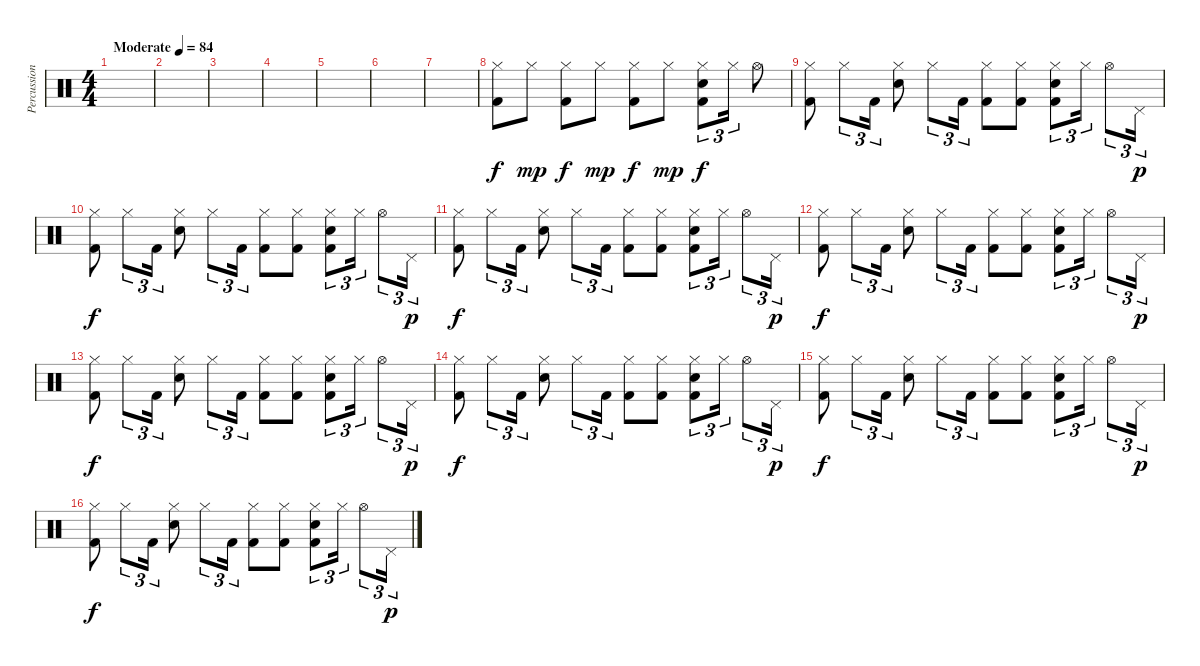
\track ("Percussion" "Percussion") {instrument percussion}
\staff {score}
\articulation defaults
\ts (4 4)
\tempo (84 "Moderate")
\clef neutral
\ks c
|
|
|
|
|
|
|
("Hi-Hat (closed)" "Kick (hit) 2").8 "Hi-Hat (closed)".8{dy mp} ("Hi-Hat (closed)" "Kick (hit) 2").8{dy f} "Hi-Hat (closed)".8{dy mp} ("Hi-Hat (closed)" "Kick (hit) 2").8{dy f} "Hi-Hat (closed)".8{dy mp} ("Hi-Hat (closed)" "Electric Snare (hit)" "Kick (hit) 2").8{tu (3 2) dy f} "Hi-Hat (closed)".16{tu (3 2)} "Hi-Hat (open)".8 |
("Hi-Hat (closed)" "Kick (hit) 2").8 "Hi-Hat (closed)".8{tu (3 2)} "Kick (hit) 2".16{tu (3 2)} ("Hi-Hat (closed)" "Electric Snare (hit)").8 "Hi-Hat (closed)".8{tu (3 2)} "Kick (hit) 2".16{tu (3 2)} ("Hi-Hat (closed)" "Kick (hit) 2").8 ("Hi-Hat (closed)" "Kick (hit) 2").8 ("Hi-Hat (closed)" "Electric Snare (hit)" "Kick (hit) 2").8{tu (3 2)} "Hi-Hat (closed)".16{tu (3 2)} "Hi-Hat (open)".8{tu (3 2)} "Pedal Hi-Hat (hit)".16{tu (3 2) dy p} |
("Hi-Hat (closed)" "Kick (hit) 2").8{dy f} "Hi-Hat (closed)".8{tu (3 2)} "Kick (hit) 2".16{tu (3 2)} ("Hi-Hat (closed)" "Electric Snare (hit)").8 "Hi-Hat (closed)".8{tu (3 2)} "Kick (hit) 2".16{tu (3 2)} ("Hi-Hat (closed)" "Kick (hit) 2").8 ("Hi-Hat (closed)" "Kick (hit) 2").8 ("Hi-Hat (closed)" "Electric Snare (hit)" "Kick (hit) 2").8{tu (3 2)} "Hi-Hat (closed)".16{tu (3 2)} "Hi-Hat (open)".8{tu (3 2)} "Pedal Hi-Hat (hit)".16{tu (3 2) dy p} |
("Hi-Hat (closed)" "Kick (hit) 2").8{dy f} "Hi-Hat (closed)".8{tu (3 2)} "Kick (hit) 2".16{tu (3 2)} ("Hi-Hat (closed)" "Electric Snare (hit)").8 "Hi-Hat (closed)".8{tu (3 2)} "Kick (hit) 2".16{tu (3 2)} ("Hi-Hat (closed)" "Kick (hit) 2").8 ("Hi-Hat (closed)" "Kick (hit) 2").8 ("Hi-Hat (closed)" "Electric Snare (hit)" "Kick (hit) 2").8{tu (3 2)} "Hi-Hat (closed)".16{tu (3 2)} "Hi-Hat (open)".8{tu (3 2)} "Pedal Hi-Hat (hit)".16{tu (3 2) dy p} |
("Hi-Hat (closed)" "Kick (hit) 2").8{dy f} "Hi-Hat (closed)".8{tu (3 2)} "Kick (hit) 2".16{tu (3 2)} ("Hi-Hat (closed)" "Electric Snare (hit)").8 "Hi-Hat (closed)".8{tu (3 2)} "Kick (hit) 2".16{tu (3 2)} ("Hi-Hat (closed)" "Kick (hit) 2").8 ("Hi-Hat (closed)" "Kick (hit) 2").8 ("Hi-Hat (closed)" "Electric Snare (hit)" "Kick (hit) 2").8{tu (3 2)} "Hi-Hat (closed)".16{tu (3 2)} "Hi-Hat (open)".8{tu (3 2)} "Pedal Hi-Hat (hit)".16{tu (3 2) dy p} |
("Hi-Hat (closed)" "Kick (hit) 2").8{dy f} "Hi-Hat (closed)".8{tu (3 2)} "Kick (hit) 2".16{tu (3 2)} ("Hi-Hat (closed)" "Electric Snare (hit)").8 "Hi-Hat (closed)".8{tu (3 2)} "Kick (hit) 2".16{tu (3 2)} ("Hi-Hat (closed)" "Kick (hit) 2").8 ("Hi-Hat (closed)" "Kick (hit) 2").8 ("Hi-Hat (closed)" "Electric Snare (hit)" "Kick (hit) 2").8{tu (3 2)} "Hi-Hat (closed)".16{tu (3 2)} "Hi-Hat (open)".8{tu (3 2)} "Pedal Hi-Hat (hit)".16{tu (3 2) dy p} |
("Hi-Hat (closed)" "Kick (hit) 2").8{dy f} "Hi-Hat (closed)".8{tu (3 2)} "Kick (hit) 2".16{tu (3 2)} ("Hi-Hat (closed)" "Electric Snare (hit)").8 "Hi-Hat (closed)".8{tu (3 2)} "Kick (hit) 2".16{tu (3 2)} ("Hi-Hat (closed)" "Kick (hit) 2").8 ("Hi-Hat (closed)" "Kick (hit) 2").8 ("Hi-Hat (closed)" "Electric Snare (hit)" "Kick (hit) 2").8{tu (3 2)} "Hi-Hat (closed)".16{tu (3 2)} "Hi-Hat (open)".8{tu (3 2)} "Pedal Hi-Hat (hit)".16{tu (3 2) dy p} |
("Hi-Hat (closed)" "Kick (hit) 2").8{dy f} "Hi-Hat (closed)".8{tu (3 2)} "Kick (hit) 2".16{tu (3 2)} ("Hi-Hat (closed)" "Electric Snare (hit)").8 "Hi-Hat (closed)".8{tu (3 2)} "Kick (hit) 2".16{tu (3 2)} ("Hi-Hat (closed)" "Kick (hit) 2").8 ("Hi-Hat (closed)" "Kick (hit) 2").8 ("Hi-Hat (closed)" "Electric Snare (hit)" "Kick (hit) 2").8{tu (3 2)} "Hi-Hat (closed)".16{tu (3 2)} "Hi-Hat (open)".8{tu (3 2)} "Pedal Hi-Hat (hit)".16{tu (3 2) dy p} |
("Hi-Hat (closed)" "Kick (hit) 2").8{dy f} "Hi-Hat (closed)".8{tu (3 2)} "Kick (hit) 2".16{tu (3 2)} ("Hi-Hat (closed)" "Electric Snare (hit)").8 "Hi-Hat (closed)".8{tu (3 2)} "Kick (hit) 2".16{tu (3 2)} ("Hi-Hat (closed)" "Kick (hit) 2").8 ("Hi-Hat (closed)" "Kick (hit) 2").8 ("Hi-Hat (closed)" "Electric Snare (hit)" "Kick (hit) 2").8{tu (3 2)} "Hi-Hat (closed)".16{tu (3 2)} "Hi-Hat (open)".8{tu (3 2)} "Pedal Hi-Hat (hit)".16{tu (3 2) dy p}
